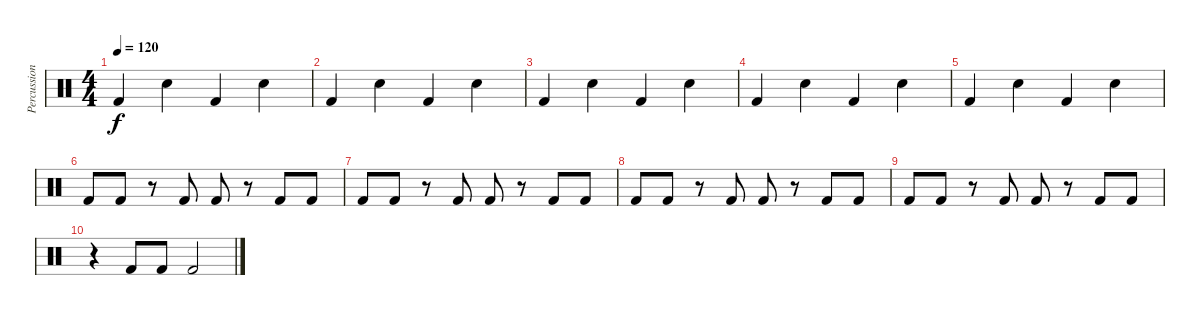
\track ("Percussions" "Percussion") {instrument percussion}
\staff {score}
\articulation defaults
\ts (4 4)
\tempo 120
\clef neutral
\ks c "Kick (hit) 2".4{dy f} "Electric Snare (hit)".4 "Kick (hit) 2".4 "Electric Snare (hit)".4
|
"Kick (hit) 2".4 "Electric Snare (hit)".4 "Kick (hit) 2".4 "Electric Snare (hit)".4 |
"Kick (hit) 2".4 "Electric Snare (hit)".4 "Kick (hit) 2".4 "Electric Snare (hit)".4 |
"Kick (hit) 2".4 "Electric Snare (hit)".4 "Kick (hit) 2".4 "Electric Snare (hit)".4 |
"Kick (hit) 2".4 "Electric Snare (hit)".4 "Kick (hit) 2".4 "Electric Snare (hit)".4 |
"Kick (hit) 2".8 "Kick (hit) 2".8 r.8 "Kick (hit) 2".8 "Kick (hit) 2".8 r.8 "Kick (hit) 2".8 "Kick (hit) 2".8 |
"Kick (hit) 2".8 "Kick (hit) 2".8 r.8 "Kick (hit) 2".8 "Kick (hit) 2".8 r.8 "Kick (hit) 2".8 "Kick (hit) 2".8 |
"Kick (hit) 2".8 "Kick (hit) 2".8 r.8 "Kick (hit) 2".8 "Kick (hit) 2".8 r.8 "Kick (hit) 2".8 "Kick (hit) 2".8 |
"Kick (hit) 2".8 "Kick (hit) 2".8 r.8 "Kick (hit) 2".8 "Kick (hit) 2".8 r.8 "Kick (hit) 2".8 "Kick (hit) 2".8 |
r.4 "Kick (hit) 2".8 "Kick (hit) 2".8 "Kick (hit) 2".2
